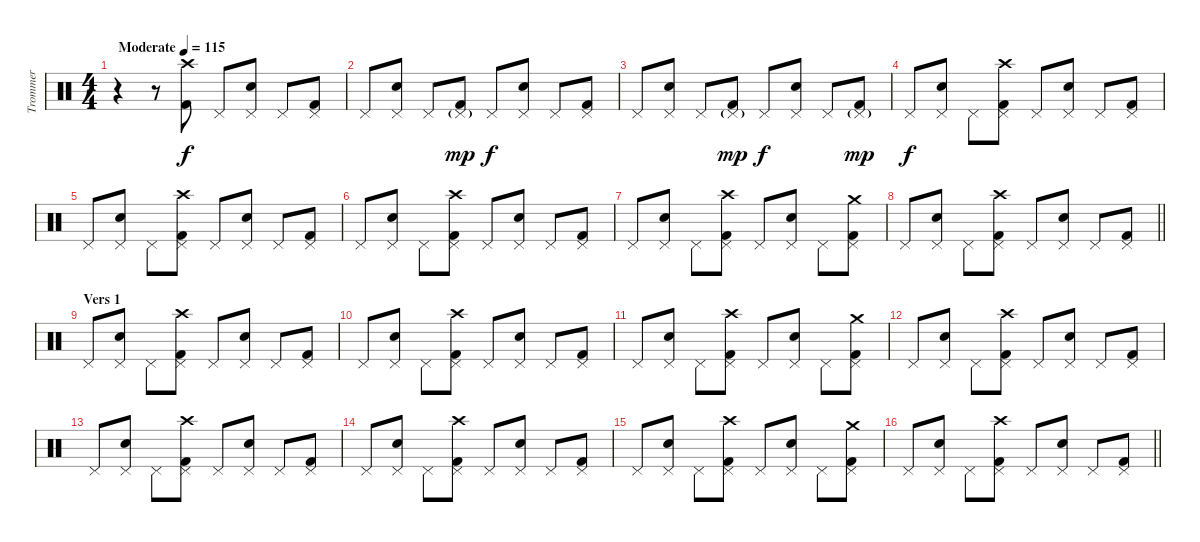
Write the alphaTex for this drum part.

\track ("Trommer" "Trommer") {instrument percussion}
\staff {score}
\articulation defaults
\ts (4 4)
\tempo (115 "Moderate")
\clef neutral
\ks c
r.4{dy f} r.8 ("Crash high (hit)" "Kick (hit) 2").8 "Pedal Hi-Hat (hit)".8 ("Pedal Hi-Hat (hit)" "Electric Snare (hit)").8 "Pedal Hi-Hat (hit)".8 ("Pedal Hi-Hat (hit)" "Kick (hit) 2").8 |
"Pedal Hi-Hat (hit)".8 ("Pedal Hi-Hat (hit)" "Electric Snare (hit)").8 "Pedal Hi-Hat (hit)".8 ("Pedal Hi-Hat (hit)"{g} "Kick (hit) 2").8{dy mp} "Pedal Hi-Hat (hit)".8{dy f} ("Pedal Hi-Hat (hit)" "Electric Snare (hit)").8 "Pedal Hi-Hat (hit)".8 ("Pedal Hi-Hat (hit)" "Kick (hit) 2").8 |
"Pedal Hi-Hat (hit)".8 ("Pedal Hi-Hat (hit)" "Electric Snare (hit)").8 "Pedal Hi-Hat (hit)".8 ("Pedal Hi-Hat (hit)"{g} "Kick (hit) 2").8{dy mp} "Pedal Hi-Hat (hit)".8{dy f} ("Pedal Hi-Hat (hit)" "Electric Snare (hit)").8 "Pedal Hi-Hat (hit)".8 ("Pedal Hi-Hat (hit)"{g} "Kick (hit) 2").8{dy mp} |
"Pedal Hi-Hat (hit)".8{dy f} ("Pedal Hi-Hat (hit)" "Electric Snare (hit)").8 "Pedal Hi-Hat (hit)".8 ("Pedal Hi-Hat (hit)" "Crash high (hit)" "Kick (hit) 2").8 "Pedal Hi-Hat (hit)".8 ("Pedal Hi-Hat (hit)" "Electric Snare (hit)").8 "Pedal Hi-Hat (hit)".8 ("Pedal Hi-Hat (hit)" "Kick (hit) 2").8 |
"Pedal Hi-Hat (hit)".8 ("Pedal Hi-Hat (hit)" "Electric Snare (hit)").8 "Pedal Hi-Hat (hit)".8 ("Pedal Hi-Hat (hit)" "Crash high (hit)" "Kick (hit) 2").8 "Pedal Hi-Hat (hit)".8 ("Pedal Hi-Hat (hit)" "Electric Snare (hit)").8 "Pedal Hi-Hat (hit)".8 ("Pedal Hi-Hat (hit)" "Kick (hit) 2").8 |
"Pedal Hi-Hat (hit)".8 ("Pedal Hi-Hat (hit)" "Electric Snare (hit)").8 "Pedal Hi-Hat (hit)".8 ("Pedal Hi-Hat (hit)" "Crash high (hit)" "Kick (hit) 2").8 "Pedal Hi-Hat (hit)".8 ("Pedal Hi-Hat (hit)" "Electric Snare (hit)").8 "Pedal Hi-Hat (hit)".8 ("Pedal Hi-Hat (hit)" "Kick (hit) 2").8 |
"Pedal Hi-Hat (hit)".8 ("Pedal Hi-Hat (hit)" "Electric Snare (hit)").8 "Pedal Hi-Hat (hit)".8 ("Pedal Hi-Hat (hit)" "Crash high (hit)" "Kick (hit) 2").8 "Pedal Hi-Hat (hit)".8 ("Pedal Hi-Hat (hit)" "Electric Snare (hit)").8 "Pedal Hi-Hat (hit)".8 ("Pedal Hi-Hat (hit)" "Crash medium (hit)" "Kick (hit) 2").8 |
\barLineRight lightlight "Pedal Hi-Hat (hit)".8
("Pedal Hi-Hat (hit)" "Electric Snare (hit)").8 "Pedal Hi-Hat (hit)".8 ("Pedal Hi-Hat (hit)" "Crash high (hit)" "Kick (hit) 2").8 "Pedal Hi-Hat (hit)".8 ("Pedal Hi-Hat (hit)" "Electric Snare (hit)").8 "Pedal Hi-Hat (hit)".8 ("Pedal Hi-Hat (hit)" "Kick (hit) 2").8 |
\section ("" "Vers 1")
"Pedal Hi-Hat (hit)".8 ("Pedal Hi-Hat (hit)" "Electric Snare (hit)").8 "Pedal Hi-Hat (hit)".8 ("Pedal Hi-Hat (hit)" "Crash high (hit)" "Kick (hit) 2").8 "Pedal Hi-Hat (hit)".8 ("Pedal Hi-Hat (hit)" "Electric Snare (hit)").8 "Pedal Hi-Hat (hit)".8 ("Pedal Hi-Hat (hit)" "Kick (hit) 2").8 |
"Pedal Hi-Hat (hit)".8 ("Pedal Hi-Hat (hit)" "Electric Snare (hit)").8 "Pedal Hi-Hat (hit)".8 ("Pedal Hi-Hat (hit)" "Crash high (hit)" "Kick (hit) 2").8 "Pedal Hi-Hat (hit)".8 ("Pedal Hi-Hat (hit)" "Electric Snare (hit)").8 "Pedal Hi-Hat (hit)".8 ("Pedal Hi-Hat (hit)" "Kick (hit) 2").8 |
"Pedal Hi-Hat (hit)".8 ("Pedal Hi-Hat (hit)" "Electric Snare (hit)").8 "Pedal Hi-Hat (hit)".8 ("Pedal Hi-Hat (hit)" "Crash high (hit)" "Kick (hit) 2").8 "Pedal Hi-Hat (hit)".8 ("Pedal Hi-Hat (hit)" "Electric Snare (hit)").8 "Pedal Hi-Hat (hit)".8 ("Pedal Hi-Hat (hit)" "Crash medium (hit)" "Kick (hit) 2").8 |
"Pedal Hi-Hat (hit)".8 ("Pedal Hi-Hat (hit)" "Electric Snare (hit)").8 "Pedal Hi-Hat (hit)".8 ("Pedal Hi-Hat (hit)" "Crash high (hit)" "Kick (hit) 2").8 "Pedal Hi-Hat (hit)".8 ("Pedal Hi-Hat (hit)" "Electric Snare (hit)").8 "Pedal Hi-Hat (hit)".8 ("Pedal Hi-Hat (hit)" "Kick (hit) 2").8 |
"Pedal Hi-Hat (hit)".8 ("Pedal Hi-Hat (hit)" "Electric Snare (hit)").8 "Pedal Hi-Hat (hit)".8 ("Pedal Hi-Hat (hit)" "Crash high (hit)" "Kick (hit) 2").8 "Pedal Hi-Hat (hit)".8 ("Pedal Hi-Hat (hit)" "Electric Snare (hit)").8 "Pedal Hi-Hat (hit)".8 ("Pedal Hi-Hat (hit)" "Kick (hit) 2").8 |
"Pedal Hi-Hat (hit)".8 ("Pedal Hi-Hat (hit)" "Electric Snare (hit)").8 "Pedal Hi-Hat (hit)".8 ("Pedal Hi-Hat (hit)" "Crash high (hit)" "Kick (hit) 2").8 "Pedal Hi-Hat (hit)".8 ("Pedal Hi-Hat (hit)" "Electric Snare (hit)").8 "Pedal Hi-Hat (hit)".8 ("Pedal Hi-Hat (hit)" "Kick (hit) 2").8 |
"Pedal Hi-Hat (hit)".8 ("Pedal Hi-Hat (hit)" "Electric Snare (hit)").8 "Pedal Hi-Hat (hit)".8 ("Pedal Hi-Hat (hit)" "Crash high (hit)" "Kick (hit) 2").8 "Pedal Hi-Hat (hit)".8 ("Pedal Hi-Hat (hit)" "Electric Snare (hit)").8 "Pedal Hi-Hat (hit)".8 ("Pedal Hi-Hat (hit)" "Crash medium (hit)" "Kick (hit) 2").8 |
\barLineRight lightlight "Pedal Hi-Hat (hit)".8
("Pedal Hi-Hat (hit)" "Electric Snare (hit)").8 "Pedal Hi-Hat (hit)".8 ("Pedal Hi-Hat (hit)" "Crash high (hit)" "Kick (hit) 2").8 "Pedal Hi-Hat (hit)".8 ("Pedal Hi-Hat (hit)" "Electric Snare (hit)").8 "Pedal Hi-Hat (hit)".8 ("Pedal Hi-Hat (hit)" "Kick (hit) 2").8
